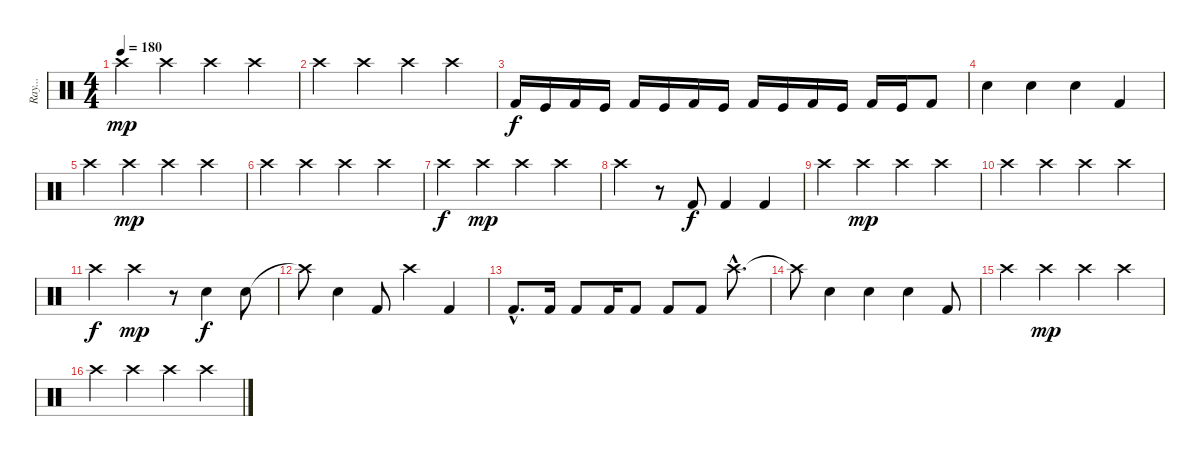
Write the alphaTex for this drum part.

\track ("Ray..." "Ray...") {instrument percussion}
\staff {score}
\articulation defaults
\ts (4 4)
\tempo 180
\clef neutral
\ks c "Crash high (hit)".4{dy mp} "Crash high (hit)".4 "Crash high (hit)".4 "Crash high (hit)".4
|
"Crash high (hit)".4 "Crash high (hit)".4 "Crash high (hit)".4 "Crash high (hit)".4 |
"Kick (hit) 2".16{dy f} "Kick (hit)".16 "Kick (hit) 2".16 "Kick (hit)".16 "Kick (hit) 2".16 "Kick (hit)".16 "Kick (hit) 2".16 "Kick (hit)".16 "Kick (hit) 2".16 "Kick (hit)".16 "Kick (hit) 2".16 "Kick (hit)".16 "Kick (hit) 2".16 "Kick (hit)".16 "Kick (hit) 2".8 |
"Snare (hit) 2".4 "Snare (hit) 2".4 "Snare (hit) 2".4 "Kick (hit) 2".4 |
"Crash high (hit)".4 "Crash high (hit)".4{dy mp} "Crash high (hit)".4 "Crash high (hit)".4 |
"Crash high (hit)".4 "Crash high (hit)".4 "Crash high (hit)".4 "Crash high (hit)".4 |
"Crash high (hit)".4{dy f} "Crash high (hit)".4{dy mp} "Crash high (hit)".4 "Crash high (hit)".4 |
"Crash high (hit)".4 r.8 "Kick (hit) 2".8{dy f} "Kick (hit) 2".4 "Kick (hit) 2".4 |
"Crash high (hit)".4 "Crash high (hit)".4{dy mp} "Crash high (hit)".4 "Crash high (hit)".4 |
"Crash high (hit)".4 "Crash high (hit)".4 "Crash high (hit)".4 "Crash high (hit)".4 |
"Crash high (hit)".4{dy f} "Crash high (hit)".4{dy mp} r.8 "Snare (hit) 2".4{dy f} "Snare (hit) 2".8 |
"Crash high (hit)"{t}.8 "Snare (hit) 2".4 "Kick (hit) 2".8 "Crash high (hit)".4 "Kick (hit) 2".4 |
"Kick (hit) 2"{hac}.8{d} "Kick (hit) 2".16 "Kick (hit) 2".8 "Kick (hit) 2".16 "Kick (hit) 2".8 "Kick (hit) 2".8 "Kick (hit) 2".8 "Crash high (hit)"{hac}.8{d} |
"Crash high (hit)"{t}.8 "Snare (hit) 2".4 "Snare (hit) 2".4 "Snare (hit) 2".4 "Kick (hit) 2".8 |
"Crash high (hit)".4 "Crash high (hit)".4{dy mp} "Crash high (hit)".4 "Crash high (hit)".4 |
"Crash high (hit)".4 "Crash high (hit)".4 "Crash high (hit)".4 "Crash high (hit)".4
